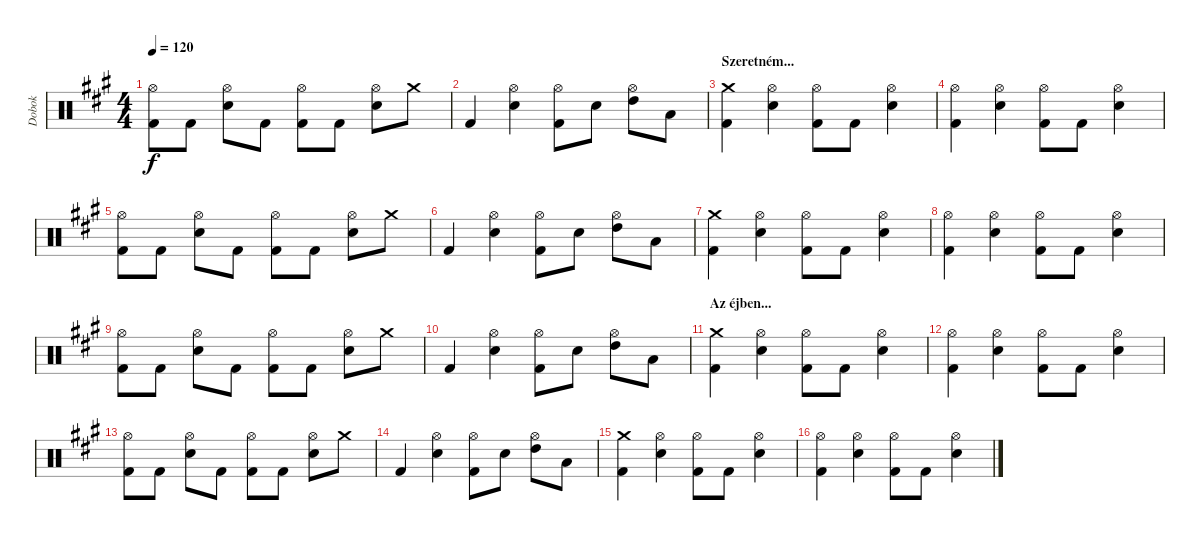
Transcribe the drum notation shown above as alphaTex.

\track ("Dobok" "Dobok") {instrument percussion}
\staff {score}
\articulation defaults
\ts (4 4)
\tempo 120
\clef neutral
\ks a
("Hi-Hat (open)" "Kick (hit) 2").8{dy f} "Kick (hit) 2".8 ("Hi-Hat (open)" "Snare (hit) 2").8 "Kick (hit) 2".8 ("Hi-Hat (open)" "Kick (hit) 2").8 "Kick (hit) 2".8 ("Hi-Hat (open)" "Snare (hit) 2").8 "Crash medium (hit)".8 |
"Kick (hit) 2".4 ("Hi-Hat (open)" "Snare (hit) 2").4 ("Hi-Hat (open)" "Kick (hit) 2").8 "Snare (hit) 2".8 ("Hi-Hat (open)" "High Tom (hit)").8 "Low Tom (hit)".8 |
\section ("" "Szeretném...")
("Crash medium (hit)" "Kick (hit) 2").4 ("Hi-Hat (open)" "Snare (hit) 2").4 ("Hi-Hat (open)" "Kick (hit) 2").8 "Kick (hit) 2".8 ("Hi-Hat (open)" "Snare (hit) 2").4 |
("Hi-Hat (open)" "Kick (hit) 2").4 ("Hi-Hat (open)" "Snare (hit) 2").4 ("Hi-Hat (open)" "Kick (hit) 2").8 "Kick (hit) 2".8 ("Hi-Hat (open)" "Snare (hit) 2").4 |
("Hi-Hat (open)" "Kick (hit) 2").8 "Kick (hit) 2".8 ("Hi-Hat (open)" "Snare (hit) 2").8 "Kick (hit) 2".8 ("Hi-Hat (open)" "Kick (hit) 2").8 "Kick (hit) 2".8 ("Hi-Hat (open)" "Snare (hit) 2").8 "Crash medium (hit)".8 |
"Kick (hit) 2".4 ("Hi-Hat (open)" "Snare (hit) 2").4 ("Hi-Hat (open)" "Kick (hit) 2").8 "Snare (hit) 2".8 ("Hi-Hat (open)" "High Tom (hit)").8 "Low Tom (hit)".8 |
("Crash medium (hit)" "Kick (hit) 2").4 ("Hi-Hat (open)" "Snare (hit) 2").4 ("Hi-Hat (open)" "Kick (hit) 2").8 "Kick (hit) 2".8 ("Hi-Hat (open)" "Snare (hit) 2").4 |
("Hi-Hat (open)" "Kick (hit) 2").4 ("Hi-Hat (open)" "Snare (hit) 2").4 ("Hi-Hat (open)" "Kick (hit) 2").8 "Kick (hit) 2".8 ("Hi-Hat (open)" "Snare (hit) 2").4 |
("Hi-Hat (open)" "Kick (hit) 2").8 "Kick (hit) 2".8 ("Hi-Hat (open)" "Snare (hit) 2").8 "Kick (hit) 2".8 ("Hi-Hat (open)" "Kick (hit) 2").8 "Kick (hit) 2".8 ("Hi-Hat (open)" "Snare (hit) 2").8 "Crash medium (hit)".8 |
"Kick (hit) 2".4 ("Hi-Hat (open)" "Snare (hit) 2").4 ("Hi-Hat (open)" "Kick (hit) 2").8 "Snare (hit) 2".8 ("Hi-Hat (open)" "High Tom (hit)").8 "Low Tom (hit)".8 |
\section ("" "Az éjben...")
("Crash medium (hit)" "Kick (hit) 2").4 ("Hi-Hat (open)" "Snare (hit) 2").4 ("Hi-Hat (open)" "Kick (hit) 2").8 "Kick (hit) 2".8 ("Hi-Hat (open)" "Snare (hit) 2").4 |
("Hi-Hat (open)" "Kick (hit) 2").4 ("Hi-Hat (open)" "Snare (hit) 2").4 ("Hi-Hat (open)" "Kick (hit) 2").8 "Kick (hit) 2".8 ("Hi-Hat (open)" "Snare (hit) 2").4 |
("Hi-Hat (open)" "Kick (hit) 2").8 "Kick (hit) 2".8 ("Hi-Hat (open)" "Snare (hit) 2").8 "Kick (hit) 2".8 ("Hi-Hat (open)" "Kick (hit) 2").8 "Kick (hit) 2".8 ("Hi-Hat (open)" "Snare (hit) 2").8 "Crash medium (hit)".8 |
"Kick (hit) 2".4 ("Hi-Hat (open)" "Snare (hit) 2").4 ("Hi-Hat (open)" "Kick (hit) 2").8 "Snare (hit) 2".8 ("Hi-Hat (open)" "High Tom (hit)").8 "Low Tom (hit)".8 |
("Crash medium (hit)" "Kick (hit) 2").4 ("Hi-Hat (open)" "Snare (hit) 2").4 ("Hi-Hat (open)" "Kick (hit) 2").8 "Kick (hit) 2".8 ("Hi-Hat (open)" "Snare (hit) 2").4 |
("Hi-Hat (open)" "Kick (hit) 2").4 ("Hi-Hat (open)" "Snare (hit) 2").4 ("Hi-Hat (open)" "Kick (hit) 2").8 "Kick (hit) 2".8 ("Hi-Hat (open)" "Snare (hit) 2").4
